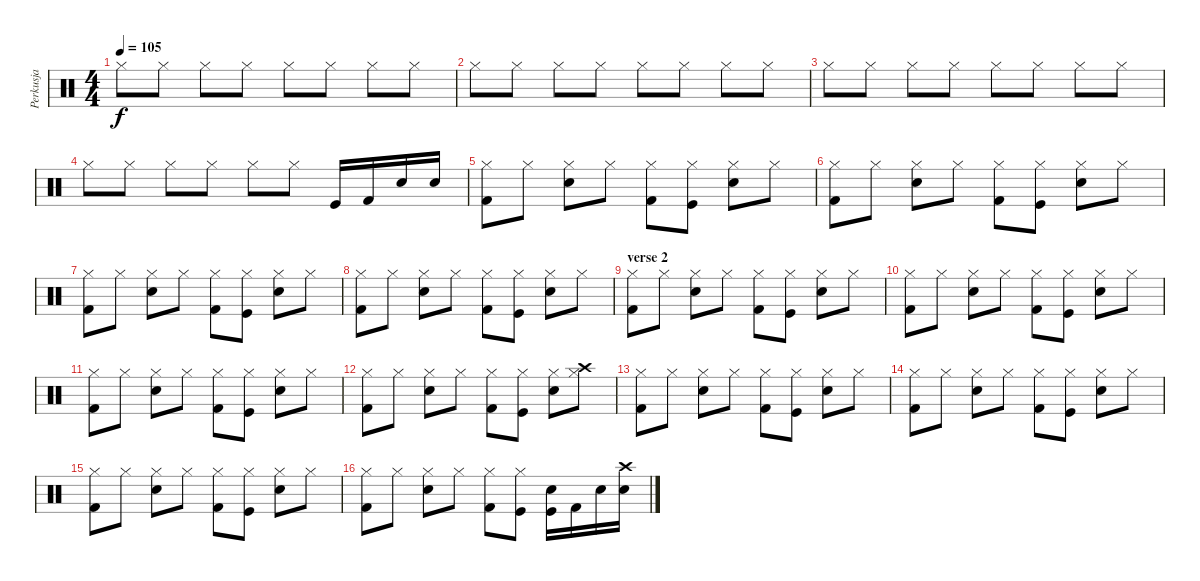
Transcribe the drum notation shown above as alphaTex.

\track ("Perkusja" "Perkusja") {instrument percussion}
\staff {score}
\articulation defaults
\ts (4 4)
\tempo 105
\clef neutral
\ks c "Hi-Hat (closed)".8{dy f} "Hi-Hat (closed)".8 "Hi-Hat (closed)".8 "Hi-Hat (closed)".8 "Hi-Hat (closed)".8 "Hi-Hat (closed)".8 "Hi-Hat (closed)".8 "Hi-Hat (closed)".8
|
"Hi-Hat (closed)".8 "Hi-Hat (closed)".8 "Hi-Hat (closed)".8 "Hi-Hat (closed)".8 "Hi-Hat (closed)".8 "Hi-Hat (closed)".8 "Hi-Hat (closed)".8 "Hi-Hat (closed)".8 |
"Hi-Hat (closed)".8 "Hi-Hat (closed)".8 "Hi-Hat (closed)".8 "Hi-Hat (closed)".8 "Hi-Hat (closed)".8 "Hi-Hat (closed)".8 "Hi-Hat (closed)".8 "Hi-Hat (closed)".8 |
"Hi-Hat (closed)".8 "Hi-Hat (closed)".8 "Hi-Hat (closed)".8 "Hi-Hat (closed)".8 "Hi-Hat (closed)".8 "Hi-Hat (closed)".8 "Kick (hit)".16 "Kick (hit) 2".16 "Snare (hit) 2".16 "Electric Snare (hit)".16 |
("Kick (hit) 2" "Hi-Hat (closed)").8 "Hi-Hat (closed)".8 ("Snare (hit) 2" "Hi-Hat (closed)").8 "Hi-Hat (closed)".8 ("Kick (hit) 2" "Hi-Hat (closed)").8 ("Kick (hit)" "Hi-Hat (closed)").8 ("Snare (hit) 2" "Hi-Hat (closed)").8 "Hi-Hat (closed)".8 |
("Kick (hit) 2" "Hi-Hat (closed)").8 "Hi-Hat (closed)".8 ("Snare (hit) 2" "Hi-Hat (closed)").8 "Hi-Hat (closed)".8 ("Kick (hit) 2" "Hi-Hat (closed)").8 ("Kick (hit)" "Hi-Hat (closed)").8 ("Snare (hit) 2" "Hi-Hat (closed)").8 "Hi-Hat (closed)".8 |
("Kick (hit) 2" "Hi-Hat (closed)").8 "Hi-Hat (closed)".8 ("Snare (hit) 2" "Hi-Hat (closed)").8 "Hi-Hat (closed)".8 ("Kick (hit) 2" "Hi-Hat (closed)").8 ("Kick (hit)" "Hi-Hat (closed)").8 ("Snare (hit) 2" "Hi-Hat (closed)").8 "Hi-Hat (closed)".8 |
("Kick (hit) 2" "Hi-Hat (closed)").8 "Hi-Hat (closed)".8 ("Snare (hit) 2" "Hi-Hat (closed)").8 "Hi-Hat (closed)".8 ("Kick (hit) 2" "Hi-Hat (closed)").8 ("Kick (hit)" "Hi-Hat (closed)").8 ("Snare (hit) 2" "Hi-Hat (closed)").8 "Hi-Hat (closed)".8 |
\section ("" "verse 2")
("Kick (hit) 2" "Hi-Hat (closed)").8 "Hi-Hat (closed)".8 ("Snare (hit) 2" "Hi-Hat (closed)").8 "Hi-Hat (closed)".8 ("Kick (hit) 2" "Hi-Hat (closed)").8 ("Kick (hit)" "Hi-Hat (closed)").8 ("Snare (hit) 2" "Hi-Hat (closed)").8 "Hi-Hat (closed)".8 |
("Kick (hit) 2" "Hi-Hat (closed)").8 "Hi-Hat (closed)".8 ("Snare (hit) 2" "Hi-Hat (closed)").8 "Hi-Hat (closed)".8 ("Kick (hit) 2" "Hi-Hat (closed)").8 ("Kick (hit)" "Hi-Hat (closed)").8 ("Snare (hit) 2" "Hi-Hat (closed)").8 "Hi-Hat (closed)".8 |
("Kick (hit) 2" "Hi-Hat (closed)").8 "Hi-Hat (closed)".8 ("Snare (hit) 2" "Hi-Hat (closed)").8 "Hi-Hat (closed)".8 ("Kick (hit) 2" "Hi-Hat (closed)").8 ("Kick (hit)" "Hi-Hat (closed)").8 ("Snare (hit) 2" "Hi-Hat (closed)").8 "Hi-Hat (closed)".8 |
("Kick (hit) 2" "Hi-Hat (closed)").8 "Hi-Hat (closed)".8 ("Snare (hit) 2" "Hi-Hat (closed)").8 "Hi-Hat (closed)".8 ("Kick (hit) 2" "Hi-Hat (closed)").8 ("Kick (hit)" "Hi-Hat (closed)").8 ("Snare (hit) 2" "Hi-Hat (closed)").8 ("Crash high (hit)" "Hi-Hat (closed)").8 |
("Kick (hit) 2" "Hi-Hat (closed)").8 "Hi-Hat (closed)".8 ("Snare (hit) 2" "Hi-Hat (closed)").8 "Hi-Hat (closed)".8 ("Kick (hit) 2" "Hi-Hat (closed)").8 ("Kick (hit)" "Hi-Hat (closed)").8 ("Snare (hit) 2" "Hi-Hat (closed)").8 "Hi-Hat (closed)".8 |
("Kick (hit) 2" "Hi-Hat (closed)").8 "Hi-Hat (closed)".8 ("Snare (hit) 2" "Hi-Hat (closed)").8 "Hi-Hat (closed)".8 ("Kick (hit) 2" "Hi-Hat (closed)").8 ("Kick (hit)" "Hi-Hat (closed)").8 ("Snare (hit) 2" "Hi-Hat (closed)").8 "Hi-Hat (closed)".8 |
("Kick (hit) 2" "Hi-Hat (closed)").8 "Hi-Hat (closed)".8 ("Snare (hit) 2" "Hi-Hat (closed)").8 "Hi-Hat (closed)".8 ("Kick (hit) 2" "Hi-Hat (closed)").8 ("Kick (hit)" "Hi-Hat (closed)").8 ("Snare (hit) 2" "Hi-Hat (closed)").8 "Hi-Hat (closed)".8 |
("Kick (hit) 2" "Hi-Hat (closed)").8 "Hi-Hat (closed)".8 ("Snare (hit) 2" "Hi-Hat (closed)").8 "Hi-Hat (closed)".8 ("Kick (hit) 2" "Hi-Hat (closed)").8 ("Kick (hit)" "Hi-Hat (closed)").8 ("Kick (hit)" "Snare (hit) 2").16 "Kick (hit) 2".16 "Snare (hit) 2".16 ("Electric Snare (hit)" "Crash high (hit)").16
